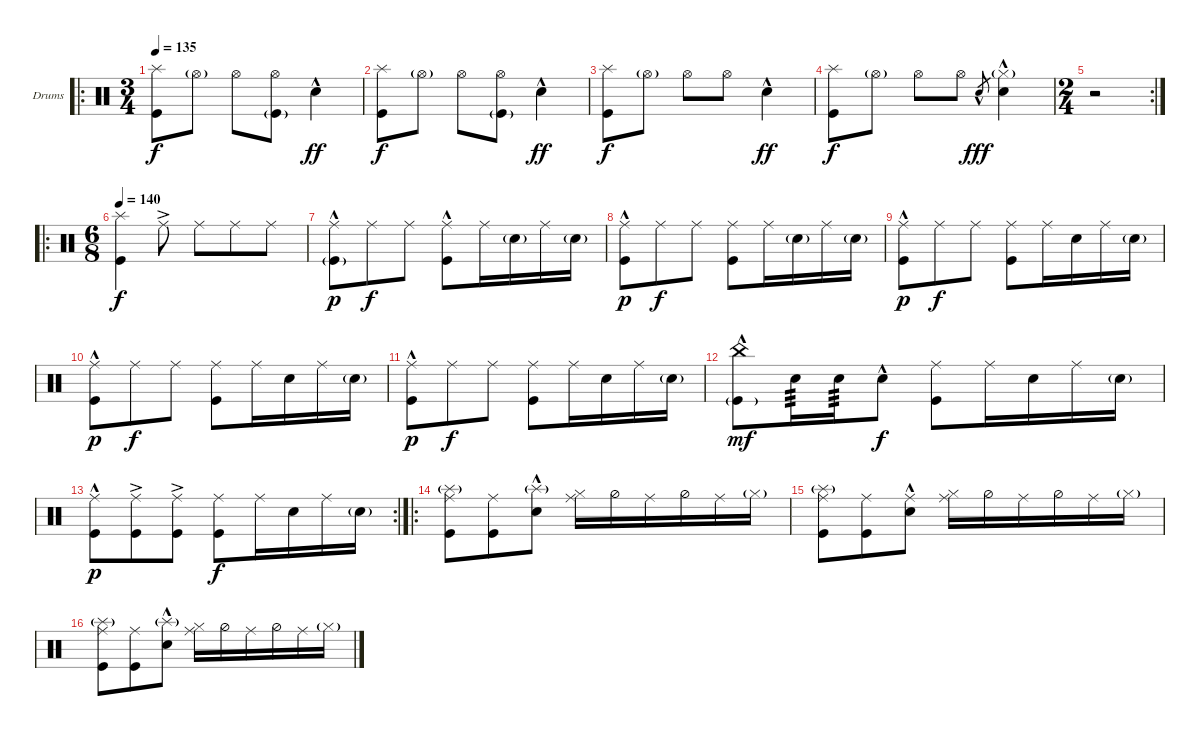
\defaultSystemsLayout 4
\bracketExtendMode groupsimilarinstruments
\firstSystemTrackNameOrientation horizontal
\otherSystemsTrackNameOrientation horizontal
\track ("Drumkit" "Drums") {instrument percussion}
\staff {score}
\articulation defaults
\ro
\ts (3 4)
\tempo 135
\clef neutral
\scale
0.502222
\ks c
("Kick (hit)" "Splash (hit)").8{dy f} "Hi-Hat (open)"{g}.8 "Hi-Hat (open)".8 ("Hi-Hat (open)" "Kick (hit)"{g}).8 "Snare (hit) 2"{hac}.4{dy ff} |
\scale
0.248889 ("Kick (hit)" "Splash (hit)").8{dy f} "Hi-Hat (open)"{g}.8 "Hi-Hat (open)".8 ("Hi-Hat (open)" "Kick (hit)"{g}).8 "Snare (hit) 2"{hac}.4{dy ff} |
\scale
0.248889 ("Kick (hit)" "Splash (hit)").8{dy f} "Hi-Hat (open)"{g}.8 "Hi-Hat (open)".8 "Hi-Hat (open)".8 "Snare (hit) 2"{hac}.4{dy ff} |
\scale
0.202899 ("Kick (hit)" "Splash (hit)").8{dy f} "Hi-Hat (open)"{g}.8 "Hi-Hat (open)".8 "Hi-Hat (open)".8 "Snare (hit) 2"{hac}.8{gr dy fff} ("Snare (hit) 2"{hac} "Hi-Hat (closed)"{g}).4 |
\rc 2
\ts (2 4)
\scale
0.387681 r.2 |
\ro
\ts (6 8)
\tempo 140
\scale
0.40942 ("Kick (hit)" "Splash (hit)").4{dy f} "Ride (middle)"{ac}.8 "Ride (middle)".8 "Ride (middle)".8 "Ride (middle)".8 |
\scale
0.333333 ("Kick (hit)"{g} "Ride (middle)"{hac}).8{dy p} "Ride (middle)".8{dy f} "Ride (middle)".8 ("Ride (middle)"{hac} "Kick (hit)"{hac}).8 "Ride (middle)".16 "Snare (hit) 2"{g}.16 "Ride (middle)".16 "Snare (hit) 2"{g}.16 |
\scale
0.333333 ("Kick (hit)" "Ride (middle)"{hac}).8{dy p} "Ride (middle)".8{dy f} "Ride (middle)".8 ("Ride (middle)" "Kick (hit)").8 "Ride (middle)".16 "Snare (hit) 2"{g}.16 "Ride (middle)".16 "Snare (hit) 2"{g}.16 |
\scale
0.333333 ("Kick (hit)" "Ride (middle)"{hac}).8{dy p} "Ride (middle)".8{dy f} "Ride (middle)".8 ("Ride (middle)" "Kick (hit)").8 "Ride (middle)".16 "Snare (hit) 2".16 "Ride (middle)".16 "Snare (hit) 2"{g}.16 |
\scale
0.333333 ("Kick (hit)" "Ride (middle)"{hac}).8{dy p} "Ride (middle)".8{dy f} "Ride (middle)".8 ("Ride (middle)" "Kick (hit)").8 "Ride (middle)".16 "Snare (hit) 2".16 "Ride (middle)".16 "Snare (hit) 2"{g}.16 |
\scale
0.333333 ("Kick (hit)" "Ride (middle)"{hac}).8{dy p} "Ride (middle)".8{dy f} "Ride (middle)".8 ("Ride (middle)" "Kick (hit)").8 "Ride (middle)".16 "Snare (hit) 2".16 "Ride (middle)".16 "Snare (hit) 2"{g}.16 |
\scale
0.333333 ("Kick (hit)"{g} "China (hit)"{hac}).8{dy mf} "Snare (hit) 2".16{tp 3} "Snare (hit) 2".16{tp 3} "Snare (hit) 2"{hac}.8{dy f} ("Ride (middle)" "Kick (hit)").8 "Ride (middle)".16 "Snare (hit) 2".16 "Ride (middle)".16 "Snare (hit) 2"{g}.16 |
\rc 2
\scale
0.333333 ("Kick (hit)" "Ride (middle)"{hac}).8{dy p} ("Ride (middle)"{ac} "Kick (hit)").8 ("Ride (middle)"{ac} "Kick (hit)").8 ("Ride (middle)" "Kick (hit)").8{dy f} "Ride (middle)".16 "Snare (hit) 2".16 "Ride (middle)".16 "Snare (hit) 2"{g}.16 |
\ro
\scale
0.365591 ("Kick (hit)" "Splash (hit)"{g} "Ride (middle)").8 ("Kick (hit)" "Ride (middle)").8 ("Snare (hit) 2"{hac} "Splash (hit)"{g}).8 ("Hi-Hat (closed)" "Ride (middle)").16 "Hi-Hat (half)".16 "Ride (middle)".16 "Hi-Hat (half)".16 "Ride (middle)".16 "Hi-Hat (closed)"{g}.16 |
\scale
0.301075 ("Kick (hit)" "Splash (hit)"{g} "Ride (middle)").8 ("Kick (hit)" "Ride (middle)").8 ("Snare (hit) 2"{hac} "Ride (middle)").8 ("Hi-Hat (closed)" "Ride (middle)").16 "Hi-Hat (half)".16 "Ride (middle)".16 "Hi-Hat (half)".16 "Ride (middle)".16 "Hi-Hat (closed)"{g}.16 |
\scale
0.301075 ("Kick (hit)" "Splash (hit)"{g} "Ride (middle)").8 ("Kick (hit)" "Ride (middle)").8 ("Snare (hit) 2"{hac} "Splash (hit)"{g}).8 ("Hi-Hat (closed)" "Ride (middle)").16 "Hi-Hat (half)".16 "Ride (middle)".16 "Hi-Hat (half)".16 "Ride (middle)".16 "Hi-Hat (closed)"{g}.16
